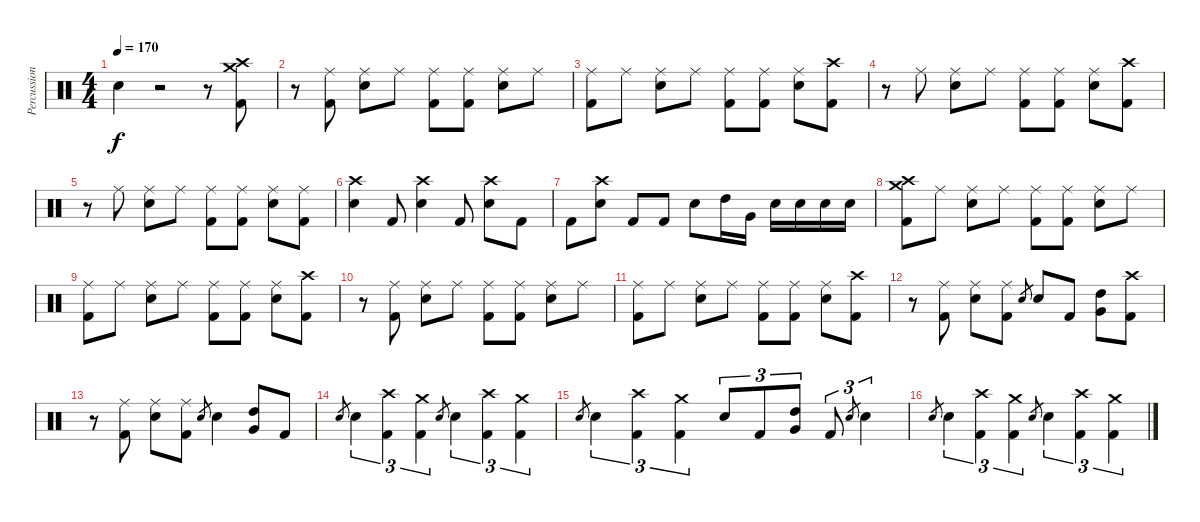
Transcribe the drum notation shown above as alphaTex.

\track ("Percussion" "Percussion") {instrument percussion}
\staff {score}
\articulation defaults
\ts (4 4)
\tempo 170
\clef neutral
\ks c "Snare (hit) 2".4{dy f}
r.2 r.8 ("Kick (hit) 2" "Crash medium (hit)" "Crash high (hit)").8 |
r.8 ("Ride (middle)" "Kick (hit) 2").8 ("Ride (middle)" "Snare (hit) 2").8 "Ride (middle)".8 ("Ride (middle)" "Kick (hit) 2").8 ("Ride (middle)" "Kick (hit) 2").8 ("Ride (middle)" "Snare (hit) 2").8 "Ride (middle)".8 |
("Ride (middle)" "Kick (hit) 2").8 "Ride (middle)".8 ("Ride (middle)" "Snare (hit) 2").8 "Ride (middle)".8 ("Ride (middle)" "Kick (hit) 2").8 ("Ride (middle)" "Kick (hit) 2").8 ("Ride (middle)" "Snare (hit) 2").8 ("Crash high (hit)" "Kick (hit) 2").8 |
r.8 "Ride (middle)".8 ("Ride (middle)" "Snare (hit) 2").8 "Ride (middle)".8 ("Ride (middle)" "Kick (hit) 2").8 ("Ride (middle)" "Kick (hit) 2").8 ("Ride (middle)" "Snare (hit) 2").8 ("Crash high (hit)" "Kick (hit) 2").8 |
r.8 "Ride (middle)".8 ("Ride (middle)" "Snare (hit) 2").8 "Ride (middle)".8 ("Ride (middle)" "Kick (hit) 2").8 ("Ride (middle)" "Kick (hit) 2").8 ("Ride (middle)" "Snare (hit) 2").8 ("Ride (middle)" "Kick (hit) 2").8 |
("Crash high (hit)" "Snare (hit) 2").4 "Kick (hit) 2".8 ("Crash high (hit)" "Snare (hit) 2").4 "Kick (hit) 2".8 ("Crash high (hit)" "Snare (hit) 2").8 "Kick (hit) 2".8 |
"Kick (hit) 2".8 ("Snare (hit) 2" "Crash high (hit)").8 "Kick (hit) 2".8 "Kick (hit) 2".8 "Snare (hit) 2".8 "High Tom (hit)".16 "Very Low Tom (hit)".16 "Snare (hit) 2".16 "Snare (hit) 2".16 "Snare (hit) 2".16 "Snare (hit) 2".16 |
("Crash medium (hit)" "Crash high (hit)" "Kick (hit) 2").8 "Ride (middle)".8 ("Ride (middle)" "Snare (hit) 2").8 "Ride (middle)".8 ("Ride (middle)" "Kick (hit) 2").8{txt ""} ("Ride (middle)" "Kick (hit) 2").8 ("Ride (middle)" "Snare (hit) 2").8 "Ride (middle)".8 |
("Ride (middle)" "Kick (hit) 2").8 "Ride (middle)".8 ("Ride (middle)" "Snare (hit) 2").8 "Ride (middle)".8 ("Ride (middle)" "Kick (hit) 2").8 ("Ride (middle)" "Kick (hit) 2").8 ("Ride (middle)" "Snare (hit) 2").8 ("Crash high (hit)" "Kick (hit) 2").8 |
r.8 ("Ride (middle)" "Kick (hit) 2").8 ("Ride (middle)" "Snare (hit) 2").8 "Ride (middle)".8 ("Ride (middle)" "Kick (hit) 2").8 ("Ride (middle)" "Kick (hit) 2").8 ("Ride (middle)" "Snare (hit) 2").8 "Ride (middle)".8 |
("Ride (middle)" "Kick (hit) 2").8 "Ride (middle)".8 ("Ride (middle)" "Snare (hit) 2").8 "Ride (middle)".8 ("Ride (middle)" "Kick (hit) 2").8 ("Ride (middle)" "Kick (hit) 2").8 ("Ride (middle)" "Snare (hit) 2").8 ("Crash high (hit)" "Kick (hit) 2").8 |
r.8 ("Ride (middle)" "Kick (hit) 2").8 ("Ride (middle)" "Snare (hit) 2").8 ("Ride (middle)" "Kick (hit) 2").8 "Snare (hit) 2".8{gr} "Snare (hit) 2".8 "Kick (hit) 2".8 ("Very Low Tom (hit)" "High Tom (hit)").8 ("Crash high (hit)" "Kick (hit) 2").8 |
r.8 ("Ride (middle)" "Kick (hit) 2").8 ("Ride (middle)" "Snare (hit) 2").8 ("Ride (middle)" "Kick (hit) 2").8 "Snare (hit) 2".8{gr} "Snare (hit) 2".4 ("Very Low Tom (hit)" "High Tom (hit)").8 "Kick (hit) 2".8 |
"Snare (hit) 2".8{gr} "Snare (hit) 2".4{tu (3 2)} ("Crash high (hit)" "Kick (hit) 2").4{tu (3 2)} ("Crash medium (hit)" "Kick (hit) 2").4{tu (3 2)} "Snare (hit) 2".8{gr} "Snare (hit) 2".4{tu (3 2)} ("Crash high (hit)" "Kick (hit) 2").4{tu (3 2)} ("Crash medium (hit)" "Kick (hit) 2").4{tu (3 2)} |
"Snare (hit) 2".8{gr} "Snare (hit) 2".4{tu (3 2)} ("Crash high (hit)" "Kick (hit) 2").4{tu (3 2)} ("Crash medium (hit)" "Kick (hit) 2").4{tu (3 2)} "Snare (hit) 2".8{tu (3 2)} "Kick (hit) 2".8{tu (3 2)} ("Very Low Tom (hit)" "High Tom (hit)").8{tu (3 2)} "Kick (hit) 2".8{tu (3 2)} "Snare (hit) 2".8{gr} "Snare (hit) 2".4{tu (3 2)} |
"Snare (hit) 2".8{gr} "Snare (hit) 2".4{tu (3 2)} ("Crash high (hit)" "Kick (hit) 2").4{tu (3 2)} ("Crash medium (hit)" "Kick (hit) 2").4{tu (3 2)} "Snare (hit) 2".8{gr} "Snare (hit) 2".4{tu (3 2)} ("Crash high (hit)" "Kick (hit) 2").4{tu (3 2)} ("Crash medium (hit)" "Kick (hit) 2").4{tu (3 2)}
